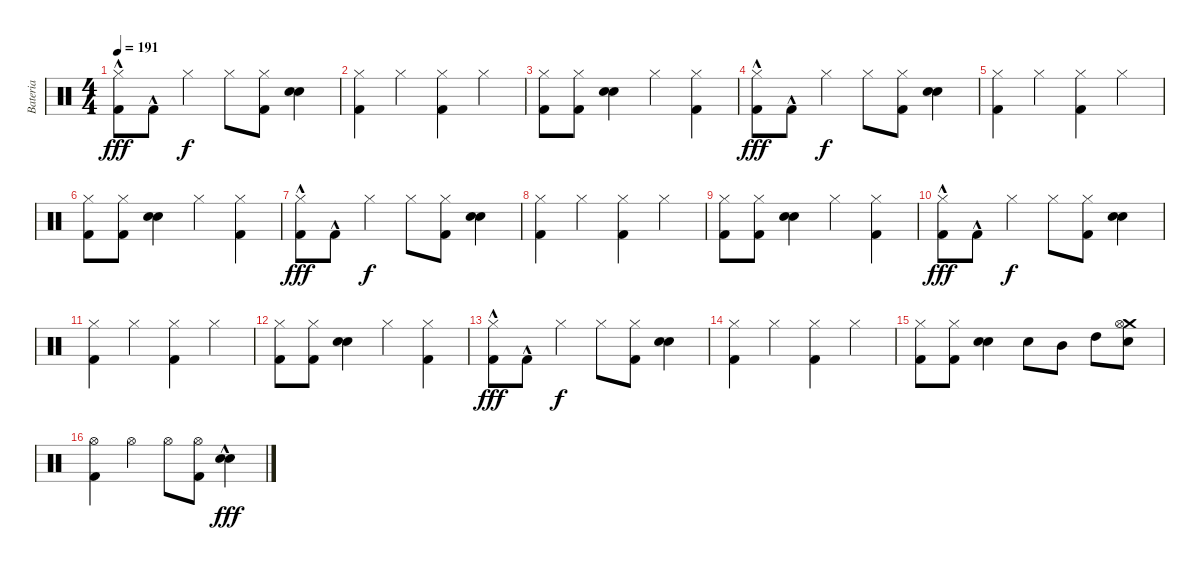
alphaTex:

\track ("Bateria" "Bateria") {instrument percussion}
\staff {score}
\articulation defaults
\ts (4 4)
\tempo 191
\clef neutral
\ks c
("Hi-Hat (closed)" "Kick (hit) 2"{hac}).8{dy fff} "Kick (hit) 2"{hac}.8 "Hi-Hat (closed)".4{dy f} "Hi-Hat (closed)".8 ("Hi-Hat (closed)" "Kick (hit) 2").8 ("Electric Snare (hit)" "Electric Snare (hit)").4 |
("Hi-Hat (closed)" "Kick (hit) 2").4 "Hi-Hat (closed)".4 ("Hi-Hat (closed)" "Kick (hit) 2").4 "Hi-Hat (closed)".4 |
("Hi-Hat (closed)" "Kick (hit) 2").8 ("Hi-Hat (closed)" "Kick (hit) 2").8 ("Electric Snare (hit)" "Electric Snare (hit)").4 "Hi-Hat (closed)".4 ("Hi-Hat (closed)" "Kick (hit) 2").4 |
("Hi-Hat (closed)" "Kick (hit) 2"{hac}).8{dy fff} "Kick (hit) 2"{hac}.8 "Hi-Hat (closed)".4{dy f} "Hi-Hat (closed)".8 ("Hi-Hat (closed)" "Kick (hit) 2").8 ("Electric Snare (hit)" "Electric Snare (hit)").4 |
("Hi-Hat (closed)" "Kick (hit) 2").4 "Hi-Hat (closed)".4 ("Hi-Hat (closed)" "Kick (hit) 2").4 "Hi-Hat (closed)".4 |
("Hi-Hat (closed)" "Kick (hit) 2").8 ("Hi-Hat (closed)" "Kick (hit) 2").8 ("Electric Snare (hit)" "Electric Snare (hit)").4 "Hi-Hat (closed)".4 ("Hi-Hat (closed)" "Kick (hit) 2").4 |
("Hi-Hat (closed)" "Kick (hit) 2"{hac}).8{dy fff} "Kick (hit) 2"{hac}.8 "Hi-Hat (closed)".4{dy f} "Hi-Hat (closed)".8 ("Hi-Hat (closed)" "Kick (hit) 2").8 ("Electric Snare (hit)" "Electric Snare (hit)").4 |
("Hi-Hat (closed)" "Kick (hit) 2").4 "Hi-Hat (closed)".4 ("Hi-Hat (closed)" "Kick (hit) 2").4 "Hi-Hat (closed)".4 |
("Hi-Hat (closed)" "Kick (hit) 2").8 ("Hi-Hat (closed)" "Kick (hit) 2").8 ("Electric Snare (hit)" "Electric Snare (hit)").4 "Hi-Hat (closed)".4 ("Hi-Hat (closed)" "Kick (hit) 2").4 |
("Hi-Hat (closed)" "Kick (hit) 2"{hac}).8{dy fff} "Kick (hit) 2"{hac}.8 "Hi-Hat (closed)".4{dy f} "Hi-Hat (closed)".8 ("Hi-Hat (closed)" "Kick (hit) 2").8 ("Electric Snare (hit)" "Electric Snare (hit)").4 |
("Hi-Hat (closed)" "Kick (hit) 2").4 "Hi-Hat (closed)".4 ("Hi-Hat (closed)" "Kick (hit) 2").4 "Hi-Hat (closed)".4 |
("Hi-Hat (closed)" "Kick (hit) 2").8 ("Hi-Hat (closed)" "Kick (hit) 2").8 ("Electric Snare (hit)" "Electric Snare (hit)").4 "Hi-Hat (closed)".4 ("Hi-Hat (closed)" "Kick (hit) 2").4 |
("Hi-Hat (closed)" "Kick (hit) 2"{hac}).8{dy fff} "Kick (hit) 2"{hac}.8 "Hi-Hat (closed)".4{dy f} "Hi-Hat (closed)".8 ("Hi-Hat (closed)" "Kick (hit) 2").8 ("Electric Snare (hit)" "Electric Snare (hit)").4 |
("Hi-Hat (closed)" "Kick (hit) 2").4 "Hi-Hat (closed)".4 ("Hi-Hat (closed)" "Kick (hit) 2").4 "Hi-Hat (closed)".4 |
("Hi-Hat (closed)" "Kick (hit) 2").8 ("Hi-Hat (closed)" "Kick (hit) 2").8 ("Electric Snare (hit)" "Electric Snare (hit)").4 "Electric Snare (hit)".8 "Mid Tom (hit)".8 "High Tom (hit)".8 ("Crash medium (hit)" "Hi-Hat (open)" "Electric Snare (hit)").8 |
("Hi-Hat (open)" "Kick (hit) 2").4 "Hi-Hat (open)".4 "Hi-Hat (open)".8 ("Hi-Hat (open)" "Kick (hit) 2").8 ("Electric Snare (hit)"{hac} "Electric Snare (hit)"{hac}).4{dy fff}
